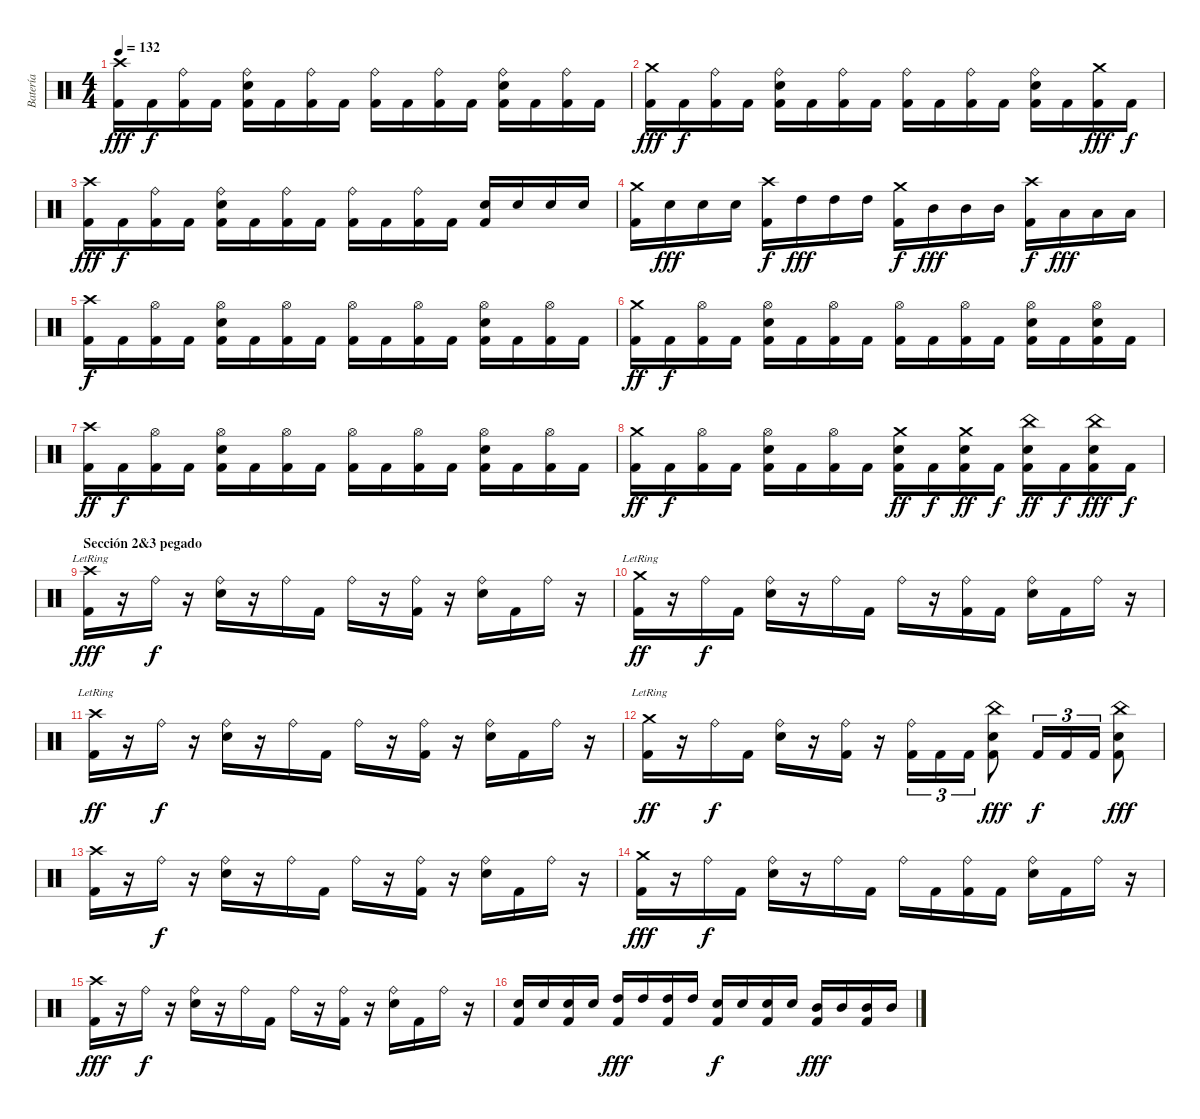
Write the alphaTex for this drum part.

\track ("Batería" "Batería") {instrument percussion}
\staff {score}
\articulation defaults
\ts (4 4)
\tempo 132
\clef neutral
\ks c
("Crash high (hit)" "Kick (hit) 2").16{dy fff} "Kick (hit) 2".16{dy f} ("Ride (bell)" "Kick (hit) 2").16 "Kick (hit) 2".16 ("Ride (bell)" "Kick (hit) 2" "Snare (hit) 2").16 "Kick (hit) 2".16 ("Ride (bell)" "Kick (hit) 2").16 "Kick (hit) 2".16 ("Ride (bell)" "Kick (hit) 2").16 "Kick (hit) 2".16 ("Ride (bell)" "Kick (hit) 2").16 "Kick (hit) 2".16 ("Ride (bell)" "Kick (hit) 2" "Snare (hit) 2").16 "Kick (hit) 2".16 ("Ride (bell)" "Kick (hit) 2").16 "Kick (hit) 2".16 |
("Crash medium (hit)" "Kick (hit) 2").16{dy fff} "Kick (hit) 2".16{dy f} ("Ride (bell)" "Kick (hit) 2").16 "Kick (hit) 2".16 ("Ride (bell)" "Kick (hit) 2" "Snare (hit) 2").16 "Kick (hit) 2".16 ("Ride (bell)" "Kick (hit) 2").16 "Kick (hit) 2".16 ("Ride (bell)" "Kick (hit) 2").16 "Kick (hit) 2".16 ("Ride (bell)" "Kick (hit) 2").16 "Kick (hit) 2".16 ("Ride (bell)" "Kick (hit) 2" "Snare (hit) 2").16 "Kick (hit) 2".16 ("Crash medium (hit)" "Kick (hit) 2").16{dy fff} "Kick (hit) 2".16{dy f} |
("Crash high (hit)" "Kick (hit) 2").16{dy fff} "Kick (hit) 2".16{dy f} ("Ride (bell)" "Kick (hit) 2").16 "Kick (hit) 2".16 ("Ride (bell)" "Kick (hit) 2" "Snare (hit) 2").16 "Kick (hit) 2".16 ("Ride (bell)" "Kick (hit) 2").16 "Kick (hit) 2".16 ("Ride (bell)" "Kick (hit) 2").16 "Kick (hit) 2".16 ("Ride (bell)" "Kick (hit) 2").16 "Kick (hit) 2".16 ("Kick (hit) 2" "Snare (hit) 2").16{volume 15} "Snare (hit) 2".16 "Snare (hit) 2".16 "Snare (hit) 2".16 |
("Crash medium (hit)" "Kick (hit) 2").16 "Snare (hit) 2".16{dy fff} "Snare (hit) 2".16 "Snare (hit) 2".16 ("Crash high (hit)" "Kick (hit) 2").16{dy f} "High Tom (hit)".16{dy fff} "High Tom (hit)".16 "High Tom (hit)".16 ("Crash medium (hit)" "Kick (hit) 2").16{dy f} "Mid Tom (hit)".16{dy fff} "Mid Tom (hit)".16 "Mid Tom (hit)".16 ("Crash high (hit)" "Kick (hit) 2").16{dy f} "Low Tom (hit)".16{dy fff} "Low Tom (hit)".16 "Low Tom (hit)".16 |
("Crash high (hit)" "Kick (hit) 2").16{dy f volume 14} "Kick (hit) 2".16 ("Hi-Hat (open)" "Kick (hit) 2").16 "Kick (hit) 2".16 ("Hi-Hat (open)" "Kick (hit) 2" "Snare (hit) 2").16 "Kick (hit) 2".16 ("Hi-Hat (open)" "Kick (hit) 2").16 "Kick (hit) 2".16 ("Hi-Hat (open)" "Kick (hit) 2").16 "Kick (hit) 2".16 ("Hi-Hat (open)" "Kick (hit) 2").16 "Kick (hit) 2".16 ("Hi-Hat (open)" "Kick (hit) 2" "Snare (hit) 2").16 "Kick (hit) 2".16 ("Hi-Hat (open)" "Kick (hit) 2").16 "Kick (hit) 2".16 |
("Crash medium (hit)" "Kick (hit) 2").16{dy ff} "Kick (hit) 2".16{dy f} ("Hi-Hat (open)" "Kick (hit) 2").16 "Kick (hit) 2".16 ("Hi-Hat (open)" "Kick (hit) 2" "Snare (hit) 2").16 "Kick (hit) 2".16 ("Hi-Hat (open)" "Kick (hit) 2").16 "Kick (hit) 2".16 ("Hi-Hat (open)" "Kick (hit) 2").16 "Kick (hit) 2".16 ("Hi-Hat (open)" "Kick (hit) 2").16 "Kick (hit) 2".16 ("Hi-Hat (open)" "Kick (hit) 2" "Snare (hit) 2").16 "Kick (hit) 2".16 ("Hi-Hat (open)" "Kick (hit) 2" "Snare (hit) 2").16 "Kick (hit) 2".16 |
("Crash high (hit)" "Kick (hit) 2").16{dy ff} "Kick (hit) 2".16{dy f} ("Hi-Hat (open)" "Kick (hit) 2").16 "Kick (hit) 2".16 ("Hi-Hat (open)" "Kick (hit) 2" "Snare (hit) 2").16 "Kick (hit) 2".16 ("Hi-Hat (open)" "Kick (hit) 2").16 "Kick (hit) 2".16 ("Hi-Hat (open)" "Kick (hit) 2").16 "Kick (hit) 2".16 ("Hi-Hat (open)" "Kick (hit) 2").16 "Kick (hit) 2".16 ("Hi-Hat (open)" "Kick (hit) 2" "Snare (hit) 2").16 "Kick (hit) 2".16 ("Hi-Hat (open)" "Kick (hit) 2").16 "Kick (hit) 2".16 |
("Crash medium (hit)" "Kick (hit) 2").16{dy ff} "Kick (hit) 2".16{dy f} ("Hi-Hat (open)" "Kick (hit) 2").16 "Kick (hit) 2".16 ("Hi-Hat (open)" "Kick (hit) 2" "Snare (hit) 2").16 "Kick (hit) 2".16 ("Hi-Hat (open)" "Kick (hit) 2").16 "Kick (hit) 2".16 ("Crash medium (hit)" "Kick (hit) 2" "Snare (hit) 2").16{dy ff} "Kick (hit) 2".16{dy f} ("Crash medium (hit)" "Kick (hit) 2" "Snare (hit) 2").16{dy ff} "Kick (hit) 2".16{dy f} ("China (hit)" "Kick (hit) 2" "Snare (hit) 2").16{dy ff} "Kick (hit) 2".16{dy f} ("China (hit)" "Kick (hit) 2" "Snare (hit) 2").16{dy fff} "Kick (hit) 2".16{dy f} |
\section ("" "Sección 2&3 pegado")
("Crash high (hit)"{lr} "Kick (hit) 2").16{dy fff} r.16 "Ride (bell)".16{dy f} r.16 ("Ride (bell)" "Snare (hit) 2").16 r.16 "Ride (bell)".16 "Kick (hit) 2".16 "Ride (bell)".16 r.16 ("Ride (bell)" "Kick (hit) 2").16 r.16 ("Ride (bell)" "Snare (hit) 2").16 "Kick (hit) 2".16 "Ride (bell)".16 r.16 |
("Crash medium (hit)"{lr} "Kick (hit) 2").16{dy ff} r.16 "Ride (bell)".16{dy f} "Kick (hit) 2".16 ("Ride (bell)" "Snare (hit) 2").16 r.16 "Ride (bell)".16 "Kick (hit) 2".16 "Ride (bell)".16 r.16 ("Ride (bell)" "Kick (hit) 2").16 "Kick (hit) 2".16 ("Ride (bell)" "Snare (hit) 2").16 "Kick (hit) 2".16 "Ride (bell)".16 r.16 |
("Crash high (hit)"{lr} "Kick (hit) 2").16{dy ff} r.16 "Ride (bell)".16{dy f} r.16 ("Ride (bell)" "Snare (hit) 2").16 r.16 "Ride (bell)".16 "Kick (hit) 2".16 "Ride (bell)".16 r.16 ("Ride (bell)" "Kick (hit) 2").16 r.16 ("Ride (bell)" "Snare (hit) 2").16 "Kick (hit) 2".16 "Ride (bell)".16 r.16 |
("Crash medium (hit)"{lr} "Kick (hit) 2").16{dy ff} r.16 "Ride (bell)".16{dy f} "Kick (hit) 2".16 ("Ride (bell)" "Snare (hit) 2").16 r.16 ("Ride (bell)" "Kick (hit) 2").16 r.16 ("Ride (bell)" "Kick (hit) 2").16{tu (3 2)} "Kick (hit) 2".16{tu (3 2)} "Kick (hit) 2".16{tu (3 2)} ("China (hit)" "Kick (hit) 2" "Snare (hit) 2").8{dy fff} "Kick (hit) 2".16{tu (3 2) dy f} "Kick (hit) 2".16{tu (3 2)} "Kick (hit) 2".16{tu (3 2)} ("China (hit)" "Kick (hit) 2" "Snare (hit) 2").8{dy fff} |
("Crash high (hit)" "Kick (hit) 2").16 r.16 "Ride (bell)".16{dy f} r.16 ("Ride (bell)" "Snare (hit) 2").16 r.16 "Ride (bell)".16 "Kick (hit) 2".16 "Ride (bell)".16 r.16 ("Ride (bell)" "Kick (hit) 2").16 r.16 ("Ride (bell)" "Snare (hit) 2").16 "Kick (hit) 2".16 "Ride (bell)".16 r.16 |
("Crash medium (hit)" "Kick (hit) 2").16{dy fff} r.16 "Ride (bell)".16{dy f} "Kick (hit) 2".16 ("Ride (bell)" "Snare (hit) 2").16 r.16 "Ride (bell)".16 "Kick (hit) 2".16 "Ride (bell)".16 "Kick (hit) 2".16 ("Ride (bell)" "Kick (hit) 2").16 "Kick (hit) 2".16 ("Ride (bell)" "Snare (hit) 2").16 "Kick (hit) 2".16 "Ride (bell)".16 r.16 |
("Crash high (hit)" "Kick (hit) 2").16{dy fff} r.16 "Ride (bell)".16{dy f} r.16 ("Ride (bell)" "Snare (hit) 2").16 r.16 "Ride (bell)".16 "Kick (hit) 2".16 "Ride (bell)".16 r.16 ("Ride (bell)" "Kick (hit) 2").16 r.16 ("Ride (bell)" "Snare (hit) 2").16 "Kick (hit) 2".16 "Ride (bell)".16 r.16 |
("Kick (hit) 2" "Snare (hit) 2").16{volume 15} "Snare (hit) 2".16 ("Kick (hit) 2" "Snare (hit) 2").16 "Snare (hit) 2".16 ("Kick (hit) 2" "High Tom (hit)").16{dy fff volume 16} "High Tom (hit)".16 ("Kick (hit) 2" "High Tom (hit)").16 "High Tom (hit)".16 ("Kick (hit) 2" "Snare (hit) 2").16{dy f} "Snare (hit) 2".16 ("Kick (hit) 2" "Snare (hit) 2").16 "Snare (hit) 2".16 ("Kick (hit) 2" "Mid Tom (hit)").16{dy fff} "Mid Tom (hit)".16 ("Kick (hit) 2" "Mid Tom (hit)").16 "Mid Tom (hit)".16
